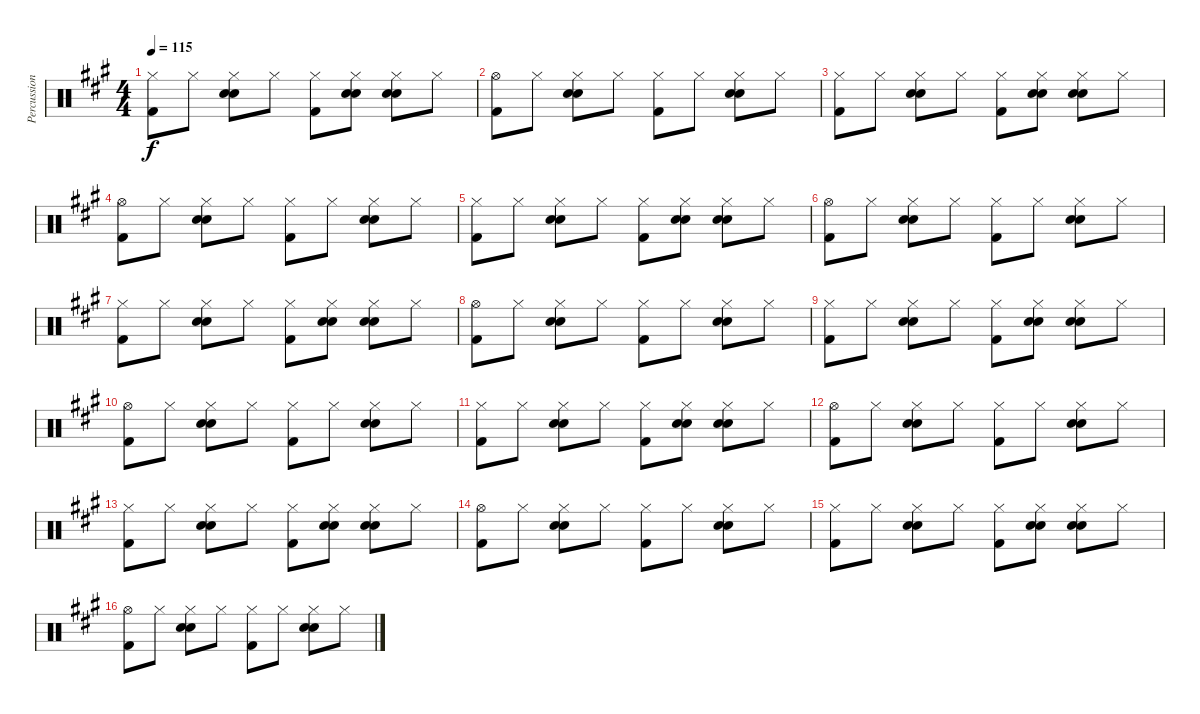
\track ("Percussion" "Percussion") {instrument percussion}
\staff {score}
\articulation defaults
\ts (4 4)
\tempo 115
\clef neutral
\ks a
("Hi-Hat (closed)" "Kick (hit) 2").8{dy f} "Hi-Hat (closed)".8 ("Hi-Hat (closed)" "Hand Clap (hit)" "Electric Snare (hit)").8 "Hi-Hat (closed)".8 ("Hi-Hat (closed)" "Kick (hit) 2").8 ("Hi-Hat (closed)" "Hand Clap (hit)" "Electric Snare (hit)").8 ("Hi-Hat (closed)" "Hand Clap (hit)" "Electric Snare (hit)").8 "Hi-Hat (closed)".8 |
("Hi-Hat (open)" "Kick (hit) 2").8 "Hi-Hat (closed)".8 ("Hi-Hat (closed)" "Hand Clap (hit)" "Electric Snare (hit)").8 "Hi-Hat (closed)".8 ("Hi-Hat (closed)" "Kick (hit) 2").8 "Hi-Hat (closed)".8 ("Hi-Hat (closed)" "Hand Clap (hit)" "Electric Snare (hit)").8 "Hi-Hat (closed)".8 |
("Hi-Hat (closed)" "Kick (hit) 2").8 "Hi-Hat (closed)".8 ("Hi-Hat (closed)" "Hand Clap (hit)" "Electric Snare (hit)").8 "Hi-Hat (closed)".8 ("Hi-Hat (closed)" "Kick (hit) 2").8 ("Hi-Hat (closed)" "Hand Clap (hit)" "Electric Snare (hit)").8 ("Hi-Hat (closed)" "Hand Clap (hit)" "Electric Snare (hit)").8 "Hi-Hat (closed)".8 |
("Hi-Hat (open)" "Kick (hit) 2").8 "Hi-Hat (closed)".8 ("Hi-Hat (closed)" "Hand Clap (hit)" "Electric Snare (hit)").8 "Hi-Hat (closed)".8 ("Hi-Hat (closed)" "Kick (hit) 2").8 "Hi-Hat (closed)".8 ("Hi-Hat (closed)" "Hand Clap (hit)" "Electric Snare (hit)").8 "Hi-Hat (closed)".8 |
("Hi-Hat (closed)" "Kick (hit) 2").8 "Hi-Hat (closed)".8 ("Hi-Hat (closed)" "Hand Clap (hit)" "Electric Snare (hit)").8 "Hi-Hat (closed)".8 ("Hi-Hat (closed)" "Kick (hit) 2").8 ("Hi-Hat (closed)" "Hand Clap (hit)" "Electric Snare (hit)").8 ("Hi-Hat (closed)" "Hand Clap (hit)" "Electric Snare (hit)").8 "Hi-Hat (closed)".8 |
("Hi-Hat (open)" "Kick (hit) 2").8 "Hi-Hat (closed)".8 ("Hi-Hat (closed)" "Hand Clap (hit)" "Electric Snare (hit)").8 "Hi-Hat (closed)".8 ("Hi-Hat (closed)" "Kick (hit) 2").8 "Hi-Hat (closed)".8 ("Hi-Hat (closed)" "Hand Clap (hit)" "Electric Snare (hit)").8 "Hi-Hat (closed)".8 |
("Hi-Hat (closed)" "Kick (hit) 2").8 "Hi-Hat (closed)".8 ("Hi-Hat (closed)" "Hand Clap (hit)" "Electric Snare (hit)").8 "Hi-Hat (closed)".8 ("Hi-Hat (closed)" "Kick (hit) 2").8 ("Hi-Hat (closed)" "Hand Clap (hit)" "Electric Snare (hit)").8 ("Hi-Hat (closed)" "Hand Clap (hit)" "Electric Snare (hit)").8 "Hi-Hat (closed)".8 |
("Hi-Hat (open)" "Kick (hit) 2").8 "Hi-Hat (closed)".8 ("Hi-Hat (closed)" "Hand Clap (hit)" "Electric Snare (hit)").8 "Hi-Hat (closed)".8 ("Hi-Hat (closed)" "Kick (hit) 2").8 "Hi-Hat (closed)".8 ("Hi-Hat (closed)" "Hand Clap (hit)" "Electric Snare (hit)").8 "Hi-Hat (closed)".8 |
("Hi-Hat (closed)" "Kick (hit) 2").8 "Hi-Hat (closed)".8 ("Hi-Hat (closed)" "Hand Clap (hit)" "Electric Snare (hit)").8 "Hi-Hat (closed)".8 ("Hi-Hat (closed)" "Kick (hit) 2").8 ("Hi-Hat (closed)" "Hand Clap (hit)" "Electric Snare (hit)").8 ("Hi-Hat (closed)" "Hand Clap (hit)" "Electric Snare (hit)").8 "Hi-Hat (closed)".8 |
("Hi-Hat (open)" "Kick (hit) 2").8 "Hi-Hat (closed)".8 ("Hi-Hat (closed)" "Hand Clap (hit)" "Electric Snare (hit)").8 "Hi-Hat (closed)".8 ("Hi-Hat (closed)" "Kick (hit) 2").8 "Hi-Hat (closed)".8 ("Hi-Hat (closed)" "Hand Clap (hit)" "Electric Snare (hit)").8 "Hi-Hat (closed)".8 |
("Hi-Hat (closed)" "Kick (hit) 2").8 "Hi-Hat (closed)".8 ("Hi-Hat (closed)" "Hand Clap (hit)" "Electric Snare (hit)").8 "Hi-Hat (closed)".8 ("Hi-Hat (closed)" "Kick (hit) 2").8 ("Hi-Hat (closed)" "Hand Clap (hit)" "Electric Snare (hit)").8 ("Hi-Hat (closed)" "Hand Clap (hit)" "Electric Snare (hit)").8 "Hi-Hat (closed)".8 |
("Hi-Hat (open)" "Kick (hit) 2").8 "Hi-Hat (closed)".8 ("Hi-Hat (closed)" "Hand Clap (hit)" "Electric Snare (hit)").8 "Hi-Hat (closed)".8 ("Hi-Hat (closed)" "Kick (hit) 2").8 "Hi-Hat (closed)".8 ("Hi-Hat (closed)" "Hand Clap (hit)" "Electric Snare (hit)").8 "Hi-Hat (closed)".8 |
("Hi-Hat (closed)" "Kick (hit) 2").8 "Hi-Hat (closed)".8 ("Hi-Hat (closed)" "Hand Clap (hit)" "Electric Snare (hit)").8 "Hi-Hat (closed)".8 ("Hi-Hat (closed)" "Kick (hit) 2").8 ("Hi-Hat (closed)" "Hand Clap (hit)" "Electric Snare (hit)").8 ("Hi-Hat (closed)" "Hand Clap (hit)" "Electric Snare (hit)").8 "Hi-Hat (closed)".8 |
("Hi-Hat (open)" "Kick (hit) 2").8 "Hi-Hat (closed)".8 ("Hi-Hat (closed)" "Hand Clap (hit)" "Electric Snare (hit)").8 "Hi-Hat (closed)".8 ("Hi-Hat (closed)" "Kick (hit) 2").8 "Hi-Hat (closed)".8 ("Hi-Hat (closed)" "Hand Clap (hit)" "Electric Snare (hit)").8 "Hi-Hat (closed)".8 |
("Hi-Hat (closed)" "Kick (hit) 2").8 "Hi-Hat (closed)".8 ("Hi-Hat (closed)" "Hand Clap (hit)" "Electric Snare (hit)").8 "Hi-Hat (closed)".8 ("Hi-Hat (closed)" "Kick (hit) 2").8 ("Hi-Hat (closed)" "Hand Clap (hit)" "Electric Snare (hit)").8 ("Hi-Hat (closed)" "Hand Clap (hit)" "Electric Snare (hit)").8 "Hi-Hat (closed)".8 |
("Hi-Hat (open)" "Kick (hit) 2").8 "Hi-Hat (closed)".8 ("Hi-Hat (closed)" "Hand Clap (hit)" "Electric Snare (hit)").8 "Hi-Hat (closed)".8 ("Hi-Hat (closed)" "Kick (hit) 2").8 "Hi-Hat (closed)".8 ("Hi-Hat (closed)" "Hand Clap (hit)" "Electric Snare (hit)").8 "Hi-Hat (closed)".8
